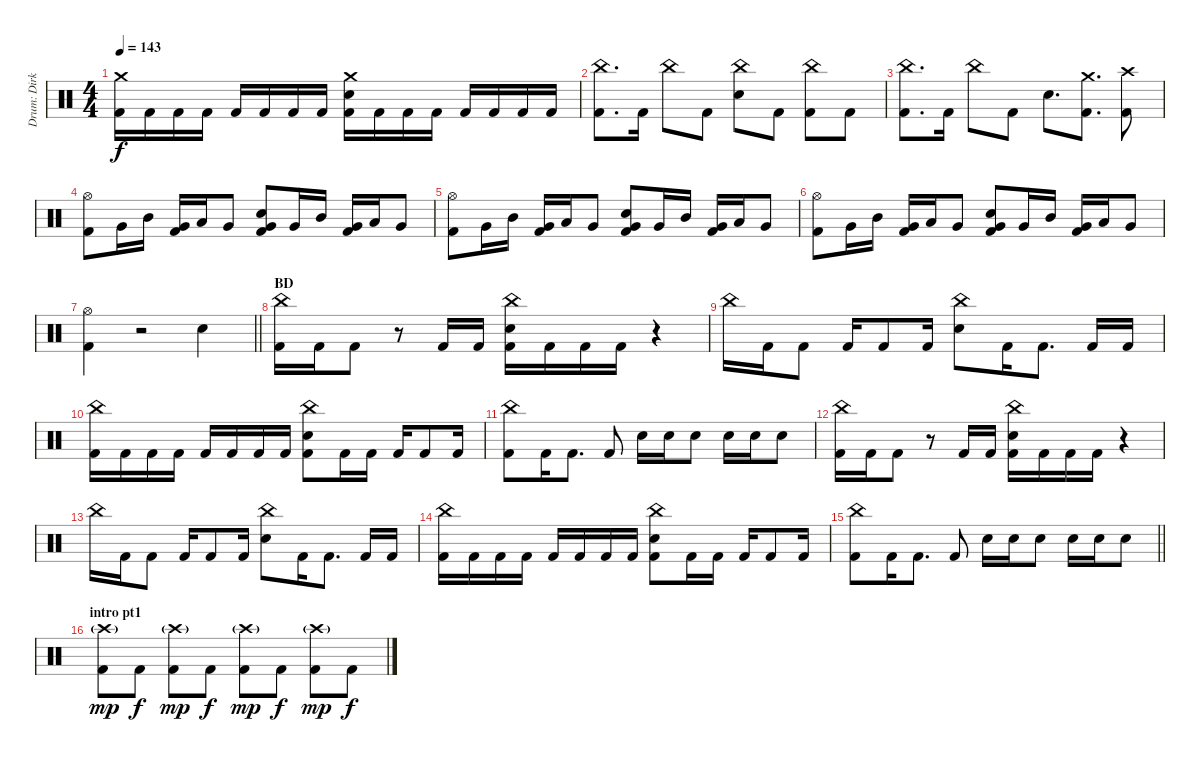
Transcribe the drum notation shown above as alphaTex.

\track ("Drum: Dirk" "Drum: Dirk") {instrument percussion}
\staff {score}
\articulation defaults
\ts (4 4)
\tempo 143
\clef neutral
\ks c
("Crash medium (hit)" "Kick (hit) 2").16{dy f} "Kick (hit) 2".16 "Kick (hit) 2".16 "Kick (hit) 2".16 "Kick (hit) 2".16 "Kick (hit) 2".16 "Kick (hit) 2".16 "Kick (hit) 2".16 ("Crash medium (hit)" "Electric Snare (hit)" "Kick (hit) 2").16 "Kick (hit) 2".16 "Kick (hit) 2".16 "Kick (hit) 2".16 "Kick (hit) 2".16 "Kick (hit) 2".16 "Kick (hit) 2".16 "Kick (hit) 2".16 |
("China (hit)" "Kick (hit) 2").8{d} "Kick (hit) 2".16 "China (hit)".8 "Kick (hit) 2".8 ("China (hit)" "Electric Snare (hit)").8 "Kick (hit) 2".8 ("China (hit)" "Kick (hit) 2").8 "Kick (hit) 2".8 |
("China (hit)" "Kick (hit) 2").8{d} "Kick (hit) 2".16 "China (hit)".8 "Kick (hit) 2".8 "Electric Snare (hit)".8{d} ("Crash medium (hit)" "Kick (hit) 2").8{d} ("Crash high (hit)" "Kick (hit) 2").8 |
("Hi-Hat (open)" "Kick (hit) 2").8 "Very Low Tom (hit)".16 "Mid Tom (hit)".16 ("Very Low Tom (hit)" "Kick (hit) 2").16 "Low Tom (hit)".16 "Very Low Tom (hit)".8 ("Electric Snare (hit)" "Very Low Tom (hit)" "Kick (hit) 2").8 "Very Low Tom (hit)".16 "Mid Tom (hit)".16 ("Very Low Tom (hit)" "Kick (hit) 2").16 "Low Tom (hit)".16 "Very Low Tom (hit)".8 |
("Hi-Hat (open)" "Kick (hit) 2").8 "Very Low Tom (hit)".16 "Mid Tom (hit)".16 ("Very Low Tom (hit)" "Kick (hit) 2").16 "Low Tom (hit)".16 "Very Low Tom (hit)".8 ("Electric Snare (hit)" "Very Low Tom (hit)" "Kick (hit) 2").8 "Very Low Tom (hit)".16 "Mid Tom (hit)".16 ("Very Low Tom (hit)" "Kick (hit) 2").16 "Low Tom (hit)".16 "Very Low Tom (hit)".8 |
("Hi-Hat (open)" "Kick (hit) 2").8 "Very Low Tom (hit)".16 "Mid Tom (hit)".16 ("Very Low Tom (hit)" "Kick (hit) 2").16 "Low Tom (hit)".16 "Very Low Tom (hit)".8 ("Electric Snare (hit)" "Very Low Tom (hit)" "Kick (hit) 2").8 "Very Low Tom (hit)".16 "Mid Tom (hit)".16 ("Very Low Tom (hit)" "Kick (hit) 2").16 "Low Tom (hit)".16 "Very Low Tom (hit)".8 |
\barLineRight lightlight
("Hi-Hat (open)" "Kick (hit) 2").4 r.2 "Electric Snare (hit)".4 |
\section ("" "BD")
("China (hit)" "Kick (hit) 2").16 "Kick (hit) 2".16 "Kick (hit) 2".8 r.8 "Kick (hit) 2".16 "Kick (hit) 2".16 ("China (hit)" "Electric Snare (hit)" "Kick (hit) 2").16 "Kick (hit) 2".16 "Kick (hit) 2".16 "Kick (hit) 2".16 r.4 |
"China (hit)".16 "Kick (hit) 2".16 "Kick (hit) 2".8 "Kick (hit) 2".16 "Kick (hit) 2".8 "Kick (hit) 2".16 ("China (hit)" "Electric Snare (hit)").8 "Kick (hit) 2".16 "Kick (hit) 2".8{d} "Kick (hit) 2".16 "Kick (hit) 2".16 |
("China (hit)" "Kick (hit) 2").16 "Kick (hit) 2".16 "Kick (hit) 2".16 "Kick (hit) 2".16 "Kick (hit) 2".16 "Kick (hit) 2".16 "Kick (hit) 2".16 "Kick (hit) 2".16 ("China (hit)" "Electric Snare (hit)" "Kick (hit) 2").8 "Kick (hit) 2".16 "Kick (hit) 2".16 "Kick (hit) 2".16 "Kick (hit) 2".8 "Kick (hit) 2".16 |
("China (hit)" "Kick (hit) 2").8 "Kick (hit) 2".16 "Kick (hit) 2".8{d} "Kick (hit) 2".8 "Electric Snare (hit)".16 "Electric Snare (hit)".16 "Electric Snare (hit)".8 "Electric Snare (hit)".16 "Electric Snare (hit)".16 "Electric Snare (hit)".8 |
("China (hit)" "Kick (hit) 2").16 "Kick (hit) 2".16 "Kick (hit) 2".8 r.8 "Kick (hit) 2".16 "Kick (hit) 2".16 ("China (hit)" "Electric Snare (hit)" "Kick (hit) 2").16 "Kick (hit) 2".16 "Kick (hit) 2".16 "Kick (hit) 2".16 r.4 |
"China (hit)".16 "Kick (hit) 2".16 "Kick (hit) 2".8 "Kick (hit) 2".16 "Kick (hit) 2".8 "Kick (hit) 2".16 ("China (hit)" "Electric Snare (hit)").8 "Kick (hit) 2".16 "Kick (hit) 2".8{d} "Kick (hit) 2".16 "Kick (hit) 2".16 |
("China (hit)" "Kick (hit) 2").16 "Kick (hit) 2".16 "Kick (hit) 2".16 "Kick (hit) 2".16 "Kick (hit) 2".16 "Kick (hit) 2".16 "Kick (hit) 2".16 "Kick (hit) 2".16 ("China (hit)" "Electric Snare (hit)" "Kick (hit) 2").8 "Kick (hit) 2".16 "Kick (hit) 2".16 "Kick (hit) 2".16 "Kick (hit) 2".8 "Kick (hit) 2".16 |
\barLineRight lightlight
("China (hit)" "Kick (hit) 2").8 "Kick (hit) 2".16 "Kick (hit) 2".8{d} "Kick (hit) 2".8 "Electric Snare (hit)".16 "Electric Snare (hit)".16 "Electric Snare (hit)".8 "Electric Snare (hit)".16 "Electric Snare (hit)".16 "Electric Snare (hit)".8 |
\section ("" "intro pt1")
("Crash high (hit)"{g} "Kick (hit) 2").8{dy mp} "Kick (hit) 2".8{dy f} ("Crash high (hit)"{g} "Kick (hit) 2").8{dy mp} "Kick (hit) 2".8{dy f} ("Crash high (hit)"{g} "Kick (hit) 2").8{dy mp} "Kick (hit) 2".8{dy f} ("Crash high (hit)"{g} "Kick (hit) 2").8{dy mp} "Kick (hit) 2".8{dy f}
